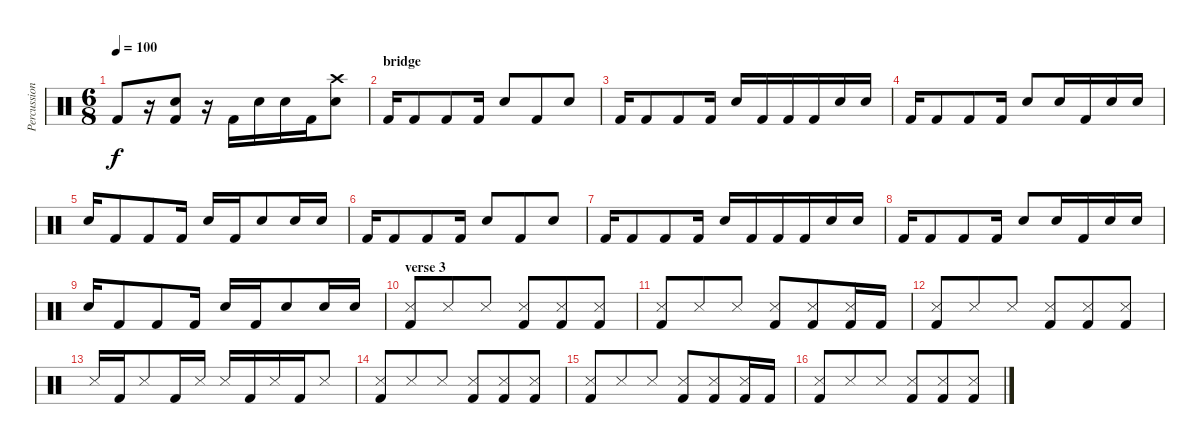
\track ("Percussion" "Percussion") {instrument percussion}
\staff {score}
\articulation defaults
\ts (6 8)
\tempo 100
\clef neutral
\ks c "Kick (hit) 2".8{dy f}
r.16 ("Snare (hit) 2" "Kick (hit) 2").8 r.16 "Kick (hit) 2".16 "Snare (hit) 2".16 "Snare (hit) 2".16 "Kick (hit) 2".16 ("Crash high (hit)" "Snare (hit) 2").8 |
\section ("" "bridge")
"Kick (hit) 2".16 "Kick (hit) 2".8 "Kick (hit) 2".8 "Kick (hit) 2".16 "Snare (hit) 2".8 "Kick (hit) 2".8 "Snare (hit) 2".8 |
"Kick (hit) 2".16 "Kick (hit) 2".8 "Kick (hit) 2".8 "Kick (hit) 2".16 "Snare (hit) 2".16 "Kick (hit) 2".16 "Kick (hit) 2".16 "Kick (hit) 2".16 "Snare (hit) 2".16 "Snare (hit) 2".16 |
"Kick (hit) 2".16 "Kick (hit) 2".8 "Kick (hit) 2".8 "Kick (hit) 2".16 "Snare (hit) 2".8 "Snare (hit) 2".16 "Kick (hit) 2".16 "Snare (hit) 2".16 "Snare (hit) 2".16 |
"Snare (hit) 2".16 "Kick (hit) 2".8 "Kick (hit) 2".8 "Kick (hit) 2".16 "Snare (hit) 2".16 "Kick (hit) 2".16 "Snare (hit) 2".8 "Snare (hit) 2".16 "Snare (hit) 2".16 |
"Kick (hit) 2".16 "Kick (hit) 2".8 "Kick (hit) 2".8 "Kick (hit) 2".16 "Snare (hit) 2".8 "Kick (hit) 2".8 "Snare (hit) 2".8 |
"Kick (hit) 2".16 "Kick (hit) 2".8 "Kick (hit) 2".8 "Kick (hit) 2".16 "Snare (hit) 2".16 "Kick (hit) 2".16 "Kick (hit) 2".16 "Kick (hit) 2".16 "Snare (hit) 2".16 "Snare (hit) 2".16 |
"Kick (hit) 2".16 "Kick (hit) 2".8 "Kick (hit) 2".8 "Kick (hit) 2".16 "Snare (hit) 2".8 "Snare (hit) 2".16 "Kick (hit) 2".16 "Snare (hit) 2".16 "Snare (hit) 2".16 |
"Snare (hit) 2".16 "Kick (hit) 2".8 "Kick (hit) 2".8 "Kick (hit) 2".16 "Snare (hit) 2".16 "Kick (hit) 2".16 "Snare (hit) 2".8 "Snare (hit) 2".16 "Snare (hit) 2".16 |
\section ("" "verse 3")
("Snare (side stick) 3" "Kick (hit) 2").8 "Snare (side stick) 3".8 "Snare (side stick) 3".8 ("Snare (side stick) 3" "Kick (hit) 2").8 ("Snare (side stick) 3" "Kick (hit) 2").8 ("Snare (side stick) 3" "Kick (hit) 2").8 |
("Snare (side stick) 3" "Kick (hit) 2").8 "Snare (side stick) 3".8 "Snare (side stick) 3".8 ("Snare (side stick) 3" "Kick (hit) 2").8 ("Snare (side stick) 3" "Kick (hit) 2").8 ("Snare (side stick) 3" "Kick (hit) 2").16 "Kick (hit) 2".16 |
("Snare (side stick) 3" "Kick (hit) 2").8 "Snare (side stick) 3".8 "Snare (side stick) 3".8 ("Snare (side stick) 3" "Kick (hit) 2").8 ("Snare (side stick) 3" "Kick (hit) 2").8 ("Snare (side stick) 3" "Kick (hit) 2").8 |
"Snare (side stick) 3".16 "Kick (hit) 2".16 "Snare (side stick) 3".8 "Kick (hit) 2".16 "Snare (side stick) 3".16 "Snare (side stick) 3".16 "Kick (hit) 2".16 "Snare (side stick) 3".16 "Kick (hit) 2".16 "Snare (side stick) 3".8 |
("Snare (side stick) 3" "Kick (hit) 2").8 "Snare (side stick) 3".8 "Snare (side stick) 3".8 ("Snare (side stick) 3" "Kick (hit) 2").8 ("Snare (side stick) 3" "Kick (hit) 2").8 ("Snare (side stick) 3" "Kick (hit) 2").8 |
("Snare (side stick) 3" "Kick (hit) 2").8 "Snare (side stick) 3".8 "Snare (side stick) 3".8 ("Snare (side stick) 3" "Kick (hit) 2").8 ("Snare (side stick) 3" "Kick (hit) 2").8 ("Snare (side stick) 3" "Kick (hit) 2").16 "Kick (hit) 2".16 |
("Snare (side stick) 3" "Kick (hit) 2").8 "Snare (side stick) 3".8 "Snare (side stick) 3".8 ("Snare (side stick) 3" "Kick (hit) 2").8 ("Snare (side stick) 3" "Kick (hit) 2").8 ("Snare (side stick) 3" "Kick (hit) 2").8
